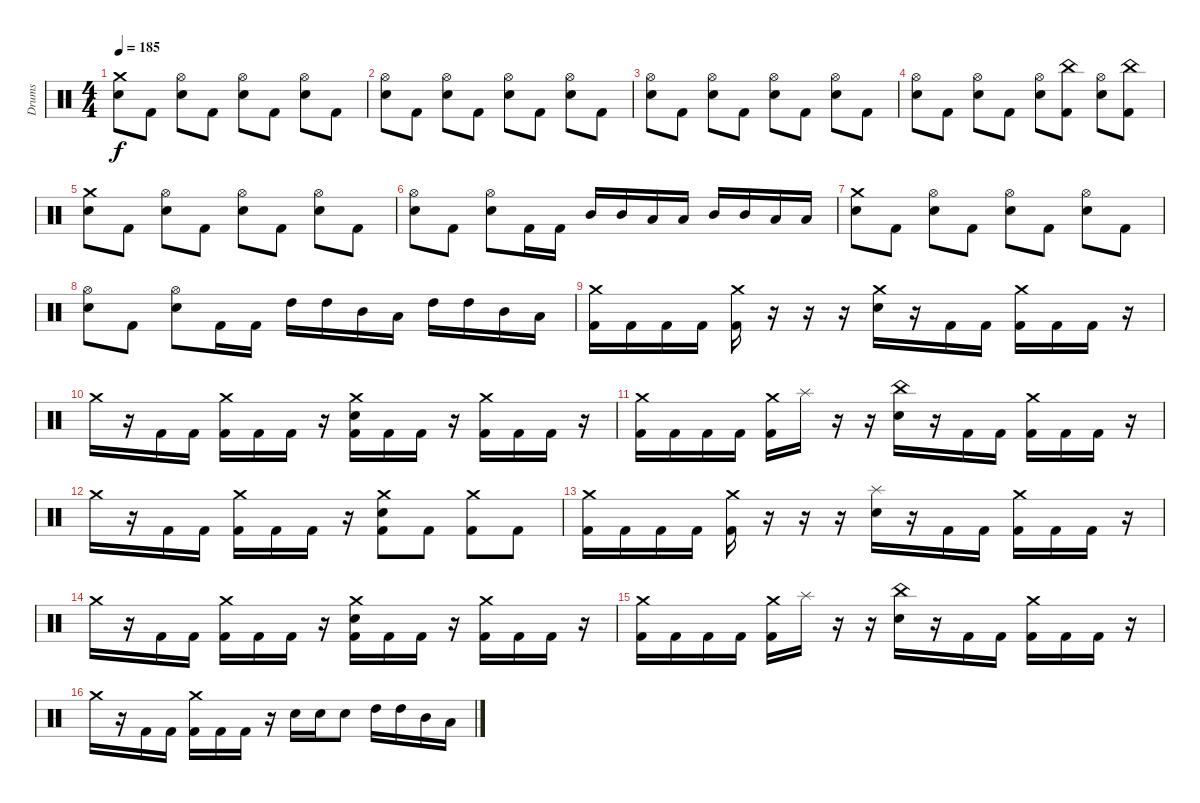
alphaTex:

\track ("Drums" "Drums") {solo instrument percussion}
\staff {score}
\articulation defaults
\ts (4 4)
\tempo 185
\clef neutral
\ks c
("Crash medium (hit)" "Snare (hit) 2").8{dy f} "Kick (hit) 2".8 ("Snare (hit) 2" "Hi-Hat (open)").8 "Kick (hit) 2".8 ("Snare (hit) 2" "Hi-Hat (open)").8 "Kick (hit) 2".8 ("Snare (hit) 2" "Hi-Hat (open)").8 "Kick (hit) 2".8 |
("Snare (hit) 2" "Hi-Hat (open)").8 "Kick (hit) 2".8 ("Snare (hit) 2" "Hi-Hat (open)").8 "Kick (hit) 2".8 ("Snare (hit) 2" "Hi-Hat (open)").8 "Kick (hit) 2".8 ("Snare (hit) 2" "Hi-Hat (open)").8 "Kick (hit) 2".8 |
("Snare (hit) 2" "Hi-Hat (open)").8 "Kick (hit) 2".8 ("Snare (hit) 2" "Hi-Hat (open)").8 "Kick (hit) 2".8 ("Snare (hit) 2" "Hi-Hat (open)").8 "Kick (hit) 2".8 ("Snare (hit) 2" "Hi-Hat (open)").8 "Kick (hit) 2".8 |
("Snare (hit) 2" "Hi-Hat (open)").8 "Kick (hit) 2".8 ("Snare (hit) 2" "Hi-Hat (open)").8 "Kick (hit) 2".8 ("Snare (hit) 2" "Hi-Hat (open)").8 ("China (hit)" "Kick (hit) 2").8 ("Snare (hit) 2" "Hi-Hat (open)").8 ("China (hit)" "Kick (hit) 2").8 |
("Crash medium (hit)" "Snare (hit) 2").8 "Kick (hit) 2".8 ("Snare (hit) 2" "Hi-Hat (open)").8 "Kick (hit) 2".8 ("Snare (hit) 2" "Hi-Hat (open)").8 "Kick (hit) 2".8 ("Snare (hit) 2" "Hi-Hat (open)").8 "Kick (hit) 2".8 |
("Snare (hit) 2" "Hi-Hat (open)").8 "Kick (hit) 2".8 ("Snare (hit) 2" "Hi-Hat (open)").8 "Kick (hit) 2".16 "Kick (hit) 2".16 "Mid Tom (hit)".16 "Mid Tom (hit)".16 "Low Tom (hit)".16 "Low Tom (hit)".16 "Mid Tom (hit)".16 "Mid Tom (hit)".16 "Low Tom (hit)".16 "Low Tom (hit)".16 |
("Crash medium (hit)" "Snare (hit) 2").8 "Kick (hit) 2".8 ("Snare (hit) 2" "Hi-Hat (open)").8 "Kick (hit) 2".8 ("Snare (hit) 2" "Hi-Hat (open)").8 "Kick (hit) 2".8 ("Snare (hit) 2" "Hi-Hat (open)").8 "Kick (hit) 2".8 |
("Snare (hit) 2" "Hi-Hat (open)").8 "Kick (hit) 2".8 ("Snare (hit) 2" "Hi-Hat (open)").8 "Kick (hit) 2".16 "Kick (hit) 2".16 "High Tom (hit)".16 "High Tom (hit)".16 "Mid Tom (hit)".16 "Low Tom (hit)".16 "High Tom (hit)".16 "High Tom (hit)".16 "Mid Tom (hit)".16 "Low Tom (hit)".16 |
("Crash medium (hit)" "Kick (hit) 2").16 "Kick (hit) 2".16 "Kick (hit) 2".16 "Kick (hit) 2".16 ("Crash medium (hit)" "Kick (hit) 2").16 r.16 r.16 r.16 ("Crash medium (hit)" "Snare (hit) 2").16 r.16 "Kick (hit) 2".16 "Kick (hit) 2".16 ("Crash medium (hit)" "Kick (hit) 2").16 "Kick (hit) 2".16 "Kick (hit) 2".16 r.16 |
"Crash medium (hit)".16 r.16 "Kick (hit) 2".16 "Kick (hit) 2".16 ("Crash medium (hit)" "Kick (hit) 2").16 "Kick (hit) 2".16 "Kick (hit) 2".16 r.16 ("Crash medium (hit)" "Snare (hit) 2" "Kick (hit) 2").16 "Kick (hit) 2".16 "Kick (hit) 2".16 r.16 ("Crash medium (hit)" "Kick (hit) 2").16 "Kick (hit) 2".16 "Kick (hit) 2".16 r.16 |
("Crash medium (hit)" "Kick (hit) 2").16 "Kick (hit) 2".16 "Kick (hit) 2".16 "Kick (hit) 2".16 ("Crash medium (hit)" "Kick (hit) 2").16 "Splash (hit)".16 r.16 r.16 ("China (hit)" "Snare (hit) 2").16 r.16 "Kick (hit) 2".16 "Kick (hit) 2".16 ("Crash medium (hit)" "Kick (hit) 2").16 "Kick (hit) 2".16 "Kick (hit) 2".16 r.16 |
"Crash medium (hit)".16 r.16 "Kick (hit) 2".16 "Kick (hit) 2".16 ("Crash medium (hit)" "Kick (hit) 2").16 "Kick (hit) 2".16 "Kick (hit) 2".16 r.16 ("Crash medium (hit)" "Snare (hit) 2" "Kick (hit) 2").8 "Kick (hit) 2".8 ("Crash medium (hit)" "Kick (hit) 2").8 "Kick (hit) 2".8 |
("Crash medium (hit)" "Kick (hit) 2").16 "Kick (hit) 2".16 "Kick (hit) 2".16 "Kick (hit) 2".16 ("Crash medium (hit)" "Kick (hit) 2").16 r.16 r.16 r.16 ("Splash (hit)" "Snare (hit) 2").16 r.16 "Kick (hit) 2".16 "Kick (hit) 2".16 ("Crash medium (hit)" "Kick (hit) 2").16 "Kick (hit) 2".16 "Kick (hit) 2".16 r.16 |
"Crash medium (hit)".16 r.16 "Kick (hit) 2".16 "Kick (hit) 2".16 ("Crash medium (hit)" "Kick (hit) 2").16 "Kick (hit) 2".16 "Kick (hit) 2".16 r.16 ("Crash medium (hit)" "Snare (hit) 2" "Kick (hit) 2").16 "Kick (hit) 2".16 "Kick (hit) 2".16 r.16 ("Crash medium (hit)" "Kick (hit) 2").16 "Kick (hit) 2".16 "Kick (hit) 2".16 r.16 |
("Crash medium (hit)" "Kick (hit) 2").16 "Kick (hit) 2".16 "Kick (hit) 2".16 "Kick (hit) 2".16 ("Crash medium (hit)" "Kick (hit) 2").16 "Splash (hit)".16 r.16 r.16 ("China (hit)" "Snare (hit) 2").16 r.16 "Kick (hit) 2".16 "Kick (hit) 2".16 ("Crash medium (hit)" "Kick (hit) 2").16 "Kick (hit) 2".16 "Kick (hit) 2".16 r.16 |
"Crash medium (hit)".16 r.16 "Kick (hit) 2".16 "Kick (hit) 2".16 ("Crash medium (hit)" "Kick (hit) 2").16 "Kick (hit) 2".16 "Kick (hit) 2".16 r.16 "Snare (hit) 2".16 "Snare (hit) 2".16 "Snare (hit) 2".8 "High Tom (hit)".16 "High Tom (hit)".16 "Mid Tom (hit)".16 "Low Tom (hit)".16
